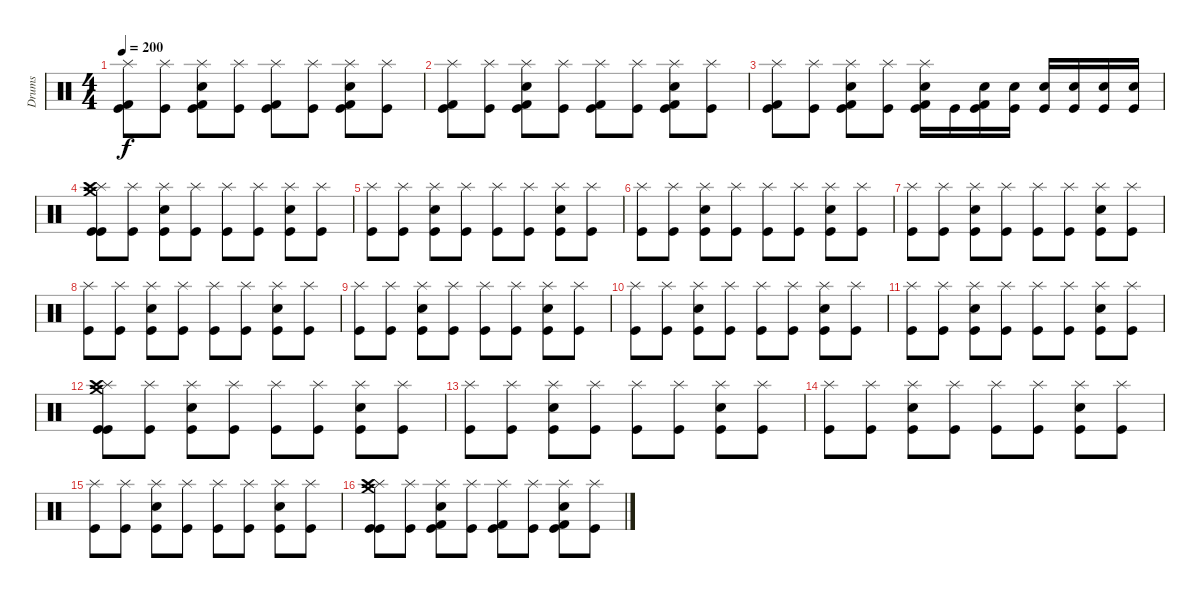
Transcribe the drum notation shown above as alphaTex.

\track ("Drums" "Drums") {instrument percussion}
\staff {score}
\articulation defaults
\ts (4 4)
\tempo 200
\clef neutral
\ks c
("Splash (hit)" "Kick (hit) 2" "Kick (hit)").8{dy f} ("Splash (hit)" "Kick (hit)").8 ("Splash (hit)" "Snare (hit) 2" "Kick (hit) 2" "Kick (hit)").8 ("Splash (hit)" "Kick (hit)").8 ("Splash (hit)" "Kick (hit) 2" "Kick (hit)").8 ("Splash (hit)" "Kick (hit)").8 ("Splash (hit)" "Snare (hit) 2" "Kick (hit) 2" "Kick (hit)").8 ("Splash (hit)" "Kick (hit)").8 |
("Splash (hit)" "Kick (hit) 2" "Kick (hit)").8 ("Splash (hit)" "Kick (hit)").8 ("Splash (hit)" "Snare (hit) 2" "Kick (hit) 2" "Kick (hit)").8 ("Splash (hit)" "Kick (hit)").8 ("Splash (hit)" "Kick (hit) 2" "Kick (hit)").8 ("Splash (hit)" "Kick (hit)").8 ("Splash (hit)" "Snare (hit) 2" "Kick (hit) 2" "Kick (hit)").8 ("Splash (hit)" "Kick (hit)").8 |
("Splash (hit)" "Kick (hit) 2" "Kick (hit)").8 ("Splash (hit)" "Kick (hit)").8 ("Splash (hit)" "Snare (hit) 2" "Kick (hit) 2" "Kick (hit)").8 ("Splash (hit)" "Kick (hit)").8 ("Splash (hit)" "Snare (hit) 2" "Kick (hit) 2" "Kick (hit)").16 "Kick (hit)".16 ("Snare (hit) 2" "Kick (hit) 2" "Kick (hit)").16 ("Snare (hit) 2" "Kick (hit)").16 ("Snare (hit) 2" "Kick (hit)").16 ("Snare (hit) 2" "Kick (hit)").16 ("Snare (hit) 2" "Kick (hit)").16 ("Snare (hit) 2" "Kick (hit)").16 |
("Splash (hit)" "Crash high (hit)" "Crash medium (hit)" "Kick (hit)" "Kick (hit)").8 ("Splash (hit)" "Kick (hit)").8 ("Splash (hit)" "Snare (hit) 2" "Kick (hit)").8 ("Splash (hit)" "Kick (hit)").8 ("Splash (hit)" "Kick (hit)").8 ("Splash (hit)" "Kick (hit)").8 ("Splash (hit)" "Snare (hit) 2" "Kick (hit)").8 ("Splash (hit)" "Kick (hit)").8 |
("Splash (hit)" "Kick (hit)").8 ("Splash (hit)" "Kick (hit)").8 ("Splash (hit)" "Snare (hit) 2" "Kick (hit)").8 ("Splash (hit)" "Kick (hit)").8 ("Splash (hit)" "Kick (hit)").8 ("Splash (hit)" "Kick (hit)").8 ("Splash (hit)" "Snare (hit) 2" "Kick (hit)").8 ("Splash (hit)" "Kick (hit)").8 |
("Splash (hit)" "Kick (hit)").8 ("Splash (hit)" "Kick (hit)").8 ("Splash (hit)" "Snare (hit) 2" "Kick (hit)").8 ("Splash (hit)" "Kick (hit)").8 ("Splash (hit)" "Kick (hit)").8 ("Splash (hit)" "Kick (hit)").8 ("Splash (hit)" "Snare (hit) 2" "Kick (hit)").8 ("Splash (hit)" "Kick (hit)").8 |
("Splash (hit)" "Kick (hit)").8 ("Splash (hit)" "Kick (hit)").8 ("Splash (hit)" "Snare (hit) 2" "Kick (hit)").8 ("Splash (hit)" "Kick (hit)").8 ("Splash (hit)" "Kick (hit)").8 ("Splash (hit)" "Kick (hit)").8 ("Splash (hit)" "Snare (hit) 2" "Kick (hit)").8 ("Splash (hit)" "Kick (hit)").8 |
("Splash (hit)" "Kick (hit)").8 ("Splash (hit)" "Kick (hit)").8 ("Splash (hit)" "Snare (hit) 2" "Kick (hit)").8 ("Splash (hit)" "Kick (hit)").8 ("Splash (hit)" "Kick (hit)").8 ("Splash (hit)" "Kick (hit)").8 ("Splash (hit)" "Snare (hit) 2" "Kick (hit)").8 ("Splash (hit)" "Kick (hit)").8 |
("Splash (hit)" "Kick (hit)").8 ("Splash (hit)" "Kick (hit)").8 ("Splash (hit)" "Snare (hit) 2" "Kick (hit)").8 ("Splash (hit)" "Kick (hit)").8 ("Splash (hit)" "Kick (hit)").8 ("Splash (hit)" "Kick (hit)").8 ("Splash (hit)" "Snare (hit) 2" "Kick (hit)").8 ("Splash (hit)" "Kick (hit)").8 |
("Splash (hit)" "Kick (hit)").8 ("Splash (hit)" "Kick (hit)").8 ("Splash (hit)" "Snare (hit) 2" "Kick (hit)").8 ("Splash (hit)" "Kick (hit)").8 ("Splash (hit)" "Kick (hit)").8 ("Splash (hit)" "Kick (hit)").8 ("Splash (hit)" "Snare (hit) 2" "Kick (hit)").8 ("Splash (hit)" "Kick (hit)").8 |
("Splash (hit)" "Kick (hit)").8 ("Splash (hit)" "Kick (hit)").8 ("Splash (hit)" "Snare (hit) 2" "Kick (hit)").8 ("Splash (hit)" "Kick (hit)").8 ("Splash (hit)" "Kick (hit)").8 ("Splash (hit)" "Kick (hit)").8 ("Splash (hit)" "Snare (hit) 2" "Kick (hit)").8 ("Splash (hit)" "Kick (hit)").8 |
("Splash (hit)" "Crash high (hit)" "Crash medium (hit)" "Kick (hit)" "Kick (hit)").8 ("Splash (hit)" "Kick (hit)").8 ("Splash (hit)" "Snare (hit) 2" "Kick (hit)").8 ("Splash (hit)" "Kick (hit)").8 ("Splash (hit)" "Kick (hit)").8 ("Splash (hit)" "Kick (hit)").8 ("Splash (hit)" "Snare (hit) 2" "Kick (hit)").8 ("Splash (hit)" "Kick (hit)").8 |
("Splash (hit)" "Kick (hit)").8 ("Splash (hit)" "Kick (hit)").8 ("Splash (hit)" "Snare (hit) 2" "Kick (hit)").8 ("Splash (hit)" "Kick (hit)").8 ("Splash (hit)" "Kick (hit)").8 ("Splash (hit)" "Kick (hit)").8 ("Splash (hit)" "Snare (hit) 2" "Kick (hit)").8 ("Splash (hit)" "Kick (hit)").8 |
("Splash (hit)" "Kick (hit)").8 ("Splash (hit)" "Kick (hit)").8 ("Splash (hit)" "Snare (hit) 2" "Kick (hit)").8 ("Splash (hit)" "Kick (hit)").8 ("Splash (hit)" "Kick (hit)").8 ("Splash (hit)" "Kick (hit)").8 ("Splash (hit)" "Snare (hit) 2" "Kick (hit)").8 ("Splash (hit)" "Kick (hit)").8 |
("Splash (hit)" "Kick (hit)").8 ("Splash (hit)" "Kick (hit)").8 ("Splash (hit)" "Snare (hit) 2" "Kick (hit)").8 ("Splash (hit)" "Kick (hit)").8 ("Splash (hit)" "Kick (hit)").8 ("Splash (hit)" "Kick (hit)").8 ("Splash (hit)" "Snare (hit) 2" "Kick (hit)").8 ("Splash (hit)" "Kick (hit)").8 |
("Splash (hit)" "Crash high (hit)" "Crash medium (hit)" "Kick (hit)" "Kick (hit)").8 ("Splash (hit)" "Kick (hit)").8 ("Splash (hit)" "Snare (hit) 2" "Kick (hit) 2" "Kick (hit)").8 ("Splash (hit)" "Kick (hit)").8 ("Splash (hit)" "Kick (hit) 2" "Kick (hit)").8 ("Splash (hit)" "Kick (hit)").8 ("Splash (hit)" "Snare (hit) 2" "Kick (hit) 2" "Kick (hit)").8 ("Splash (hit)" "Kick (hit)").8
